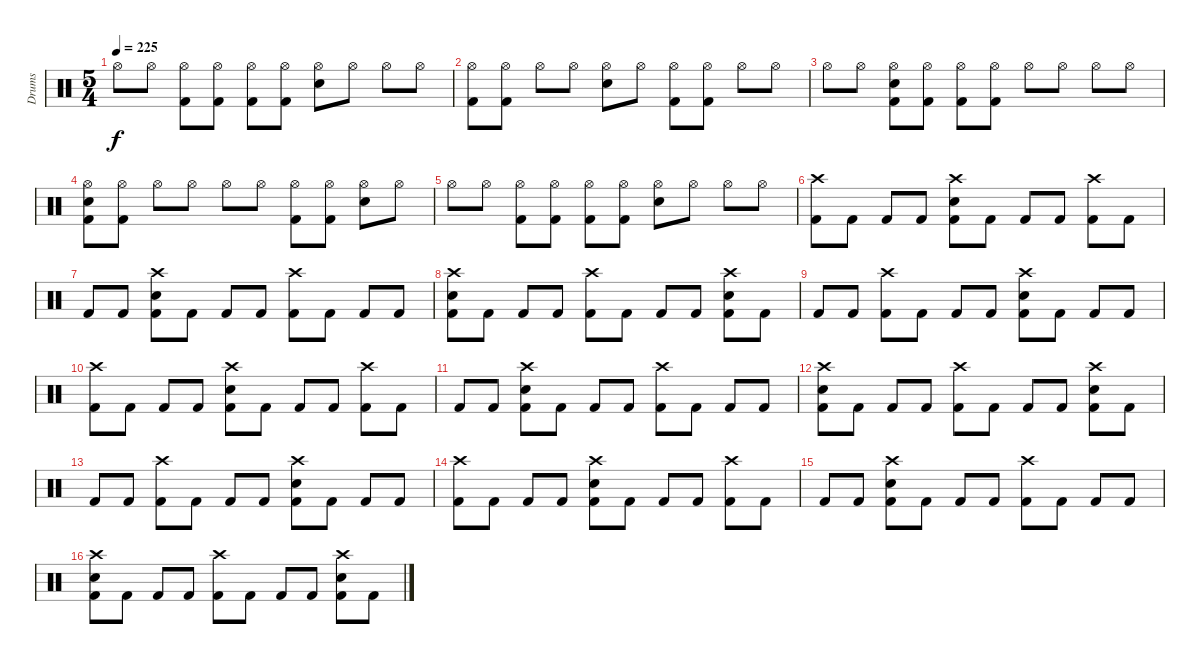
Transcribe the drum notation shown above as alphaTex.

\track ("Drums" "Drums") {instrument percussion}
\staff {score}
\articulation defaults
\ts (5 4)
\tempo 225
\clef neutral
\ks c "Hi-Hat (open)".8{dy f} "Hi-Hat (open)".8
("Hi-Hat (open)" "Kick (hit) 2").8 ("Hi-Hat (open)" "Kick (hit) 2").8 ("Hi-Hat (open)" "Kick (hit) 2").8 ("Hi-Hat (open)" "Kick (hit) 2").8 ("Hi-Hat (open)" "Electric Snare (hit)").8 "Hi-Hat (open)".8 "Hi-Hat (open)".8 "Hi-Hat (open)".8 |
("Hi-Hat (open)" "Kick (hit) 2").8 ("Hi-Hat (open)" "Kick (hit) 2").8 "Hi-Hat (open)".8 "Hi-Hat (open)".8 ("Hi-Hat (open)" "Electric Snare (hit)").8 "Hi-Hat (open)".8 ("Hi-Hat (open)" "Kick (hit) 2").8 ("Hi-Hat (open)" "Kick (hit) 2").8 "Hi-Hat (open)".8 "Hi-Hat (open)".8 |
"Hi-Hat (open)".8 "Hi-Hat (open)".8 ("Hi-Hat (open)" "Electric Snare (hit)" "Kick (hit) 2").8 ("Hi-Hat (open)" "Kick (hit) 2").8 ("Hi-Hat (open)" "Kick (hit) 2").8 ("Hi-Hat (open)" "Kick (hit) 2").8 "Hi-Hat (open)".8 "Hi-Hat (open)".8 "Hi-Hat (open)".8 "Hi-Hat (open)".8 |
("Hi-Hat (open)" "Electric Snare (hit)" "Kick (hit) 2").8 ("Hi-Hat (open)" "Kick (hit) 2").8 "Hi-Hat (open)".8 "Hi-Hat (open)".8 "Hi-Hat (open)".8 "Hi-Hat (open)".8 ("Hi-Hat (open)" "Kick (hit) 2").8 ("Hi-Hat (open)" "Kick (hit) 2").8 ("Hi-Hat (open)" "Electric Snare (hit)").8 "Hi-Hat (open)".8 |
"Hi-Hat (open)".8 "Hi-Hat (open)".8 ("Hi-Hat (open)" "Kick (hit) 2").8 ("Hi-Hat (open)" "Kick (hit) 2").8 ("Hi-Hat (open)" "Kick (hit) 2").8 ("Hi-Hat (open)" "Kick (hit) 2").8 ("Hi-Hat (open)" "Electric Snare (hit)").8 "Hi-Hat (open)".8 "Hi-Hat (open)".8 "Hi-Hat (open)".8 |
("Crash high (hit)" "Kick (hit) 2").8 "Kick (hit) 2".8 "Kick (hit) 2".8 "Kick (hit) 2".8 ("Crash high (hit)" "Electric Snare (hit)" "Kick (hit) 2").8 "Kick (hit) 2".8 "Kick (hit) 2".8 "Kick (hit) 2".8 ("Crash high (hit)" "Kick (hit) 2").8 "Kick (hit) 2".8 |
"Kick (hit) 2".8 "Kick (hit) 2".8 ("Crash high (hit)" "Electric Snare (hit)" "Kick (hit) 2").8 "Kick (hit) 2".8 "Kick (hit) 2".8 "Kick (hit) 2".8 ("Crash high (hit)" "Kick (hit) 2").8 "Kick (hit) 2".8 "Kick (hit) 2".8 "Kick (hit) 2".8 |
("Crash high (hit)" "Electric Snare (hit)" "Kick (hit) 2").8 "Kick (hit) 2".8 "Kick (hit) 2".8 "Kick (hit) 2".8 ("Crash high (hit)" "Kick (hit) 2").8 "Kick (hit) 2".8 "Kick (hit) 2".8 "Kick (hit) 2".8 ("Crash high (hit)" "Electric Snare (hit)" "Kick (hit) 2").8 "Kick (hit) 2".8 |
"Kick (hit) 2".8 "Kick (hit) 2".8 ("Crash high (hit)" "Kick (hit) 2").8 "Kick (hit) 2".8 "Kick (hit) 2".8 "Kick (hit) 2".8 ("Crash high (hit)" "Electric Snare (hit)" "Kick (hit) 2").8 "Kick (hit) 2".8 "Kick (hit) 2".8 "Kick (hit) 2".8 |
("Crash high (hit)" "Kick (hit) 2").8 "Kick (hit) 2".8 "Kick (hit) 2".8 "Kick (hit) 2".8 ("Crash high (hit)" "Electric Snare (hit)" "Kick (hit) 2").8 "Kick (hit) 2".8 "Kick (hit) 2".8 "Kick (hit) 2".8 ("Crash high (hit)" "Kick (hit) 2").8 "Kick (hit) 2".8 |
"Kick (hit) 2".8 "Kick (hit) 2".8 ("Crash high (hit)" "Electric Snare (hit)" "Kick (hit) 2").8 "Kick (hit) 2".8 "Kick (hit) 2".8 "Kick (hit) 2".8 ("Crash high (hit)" "Kick (hit) 2").8 "Kick (hit) 2".8 "Kick (hit) 2".8 "Kick (hit) 2".8 |
("Crash high (hit)" "Electric Snare (hit)" "Kick (hit) 2").8 "Kick (hit) 2".8 "Kick (hit) 2".8 "Kick (hit) 2".8 ("Crash high (hit)" "Kick (hit) 2").8 "Kick (hit) 2".8 "Kick (hit) 2".8 "Kick (hit) 2".8 ("Crash high (hit)" "Electric Snare (hit)" "Kick (hit) 2").8 "Kick (hit) 2".8 |
"Kick (hit) 2".8 "Kick (hit) 2".8 ("Crash high (hit)" "Kick (hit) 2").8 "Kick (hit) 2".8 "Kick (hit) 2".8 "Kick (hit) 2".8 ("Crash high (hit)" "Electric Snare (hit)" "Kick (hit) 2").8 "Kick (hit) 2".8 "Kick (hit) 2".8 "Kick (hit) 2".8 |
("Crash high (hit)" "Kick (hit) 2").8 "Kick (hit) 2".8 "Kick (hit) 2".8 "Kick (hit) 2".8 ("Crash high (hit)" "Electric Snare (hit)" "Kick (hit) 2").8 "Kick (hit) 2".8 "Kick (hit) 2".8 "Kick (hit) 2".8 ("Crash high (hit)" "Kick (hit) 2").8 "Kick (hit) 2".8 |
"Kick (hit) 2".8 "Kick (hit) 2".8 ("Crash high (hit)" "Electric Snare (hit)" "Kick (hit) 2").8 "Kick (hit) 2".8 "Kick (hit) 2".8 "Kick (hit) 2".8 ("Crash high (hit)" "Kick (hit) 2").8 "Kick (hit) 2".8 "Kick (hit) 2".8 "Kick (hit) 2".8 |
("Crash high (hit)" "Electric Snare (hit)" "Kick (hit) 2").8 "Kick (hit) 2".8 "Kick (hit) 2".8 "Kick (hit) 2".8 ("Crash high (hit)" "Kick (hit) 2").8 "Kick (hit) 2".8 "Kick (hit) 2".8 "Kick (hit) 2".8 ("Crash high (hit)" "Electric Snare (hit)" "Kick (hit) 2").8 "Kick (hit) 2".8
